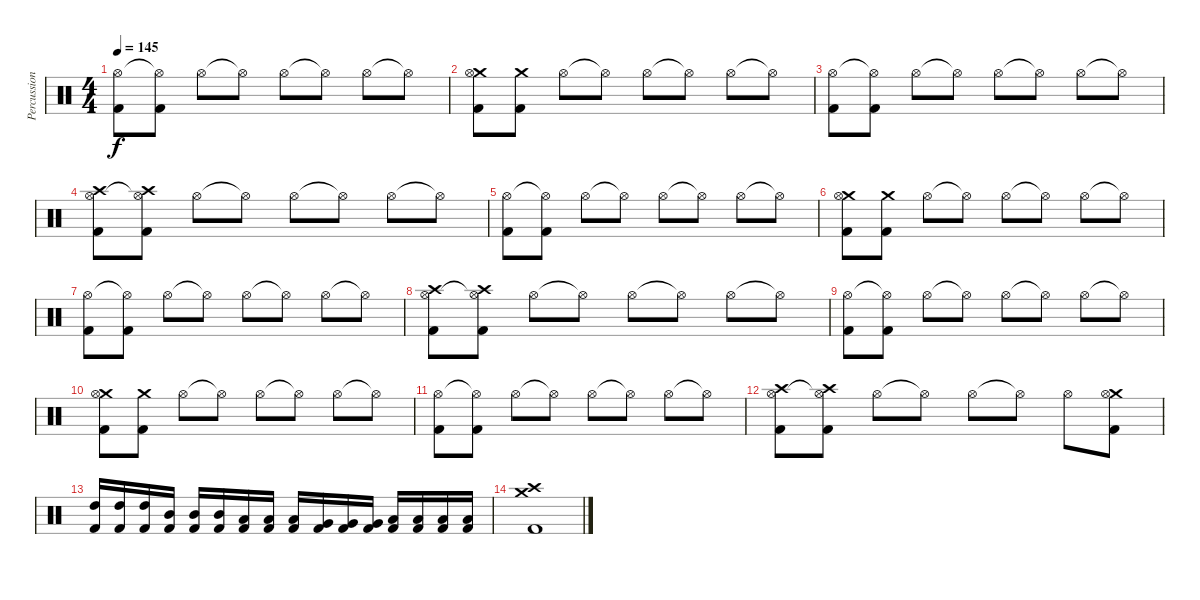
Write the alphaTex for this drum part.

\track ("Percussioni" "Percussion") {instrument percussion}
\staff {score}
\articulation defaults
\ts (4 4)
\tempo 145
\clef neutral
\ks c
("Hi-Hat (open)" "Kick (hit) 2").8{dy f} ("Hi-Hat (open)"{t} "Kick (hit) 2").8 "Hi-Hat (open)".8 "Hi-Hat (open)"{t}.8 "Hi-Hat (open)".8 "Hi-Hat (open)"{t}.8 "Hi-Hat (open)".8 "Hi-Hat (open)"{t}.8 |
("Crash medium (hit)" "Hi-Hat (open)" "Kick (hit) 2").8 ("Crash medium (hit)" "Kick (hit) 2").8 "Hi-Hat (open)".8 "Hi-Hat (open)"{t}.8 "Hi-Hat (open)".8 "Hi-Hat (open)"{t}.8 "Hi-Hat (open)".8 "Hi-Hat (open)"{t}.8 |
("Hi-Hat (open)" "Kick (hit) 2").8 ("Hi-Hat (open)"{t} "Kick (hit) 2").8 "Hi-Hat (open)".8 "Hi-Hat (open)"{t}.8 "Hi-Hat (open)".8 "Hi-Hat (open)"{t}.8 "Hi-Hat (open)".8 "Hi-Hat (open)"{t}.8 |
("Crash high (hit)" "Hi-Hat (open)" "Kick (hit) 2").8 ("Crash high (hit)" "Hi-Hat (open)"{t} "Kick (hit) 2").8 "Hi-Hat (open)".8 "Hi-Hat (open)"{t}.8 "Hi-Hat (open)".8 "Hi-Hat (open)"{t}.8 "Hi-Hat (open)".8 "Hi-Hat (open)"{t}.8 |
("Hi-Hat (open)" "Kick (hit) 2").8 ("Hi-Hat (open)"{t} "Kick (hit) 2").8 "Hi-Hat (open)".8 "Hi-Hat (open)"{t}.8 "Hi-Hat (open)".8 "Hi-Hat (open)"{t}.8 "Hi-Hat (open)".8 "Hi-Hat (open)"{t}.8 |
("Crash medium (hit)" "Hi-Hat (open)" "Kick (hit) 2").8 ("Crash medium (hit)" "Kick (hit) 2").8 "Hi-Hat (open)".8 "Hi-Hat (open)"{t}.8 "Hi-Hat (open)".8 "Hi-Hat (open)"{t}.8 "Hi-Hat (open)".8 "Hi-Hat (open)"{t}.8 |
("Hi-Hat (open)" "Kick (hit) 2").8 ("Hi-Hat (open)"{t} "Kick (hit) 2").8 "Hi-Hat (open)".8 "Hi-Hat (open)"{t}.8 "Hi-Hat (open)".8 "Hi-Hat (open)"{t}.8 "Hi-Hat (open)".8 "Hi-Hat (open)"{t}.8 |
("Crash high (hit)" "Hi-Hat (open)" "Kick (hit) 2").8 ("Crash high (hit)" "Hi-Hat (open)"{t} "Kick (hit) 2").8 "Hi-Hat (open)".8 "Hi-Hat (open)"{t}.8 "Hi-Hat (open)".8 "Hi-Hat (open)"{t}.8 "Hi-Hat (open)".8 "Hi-Hat (open)"{t}.8 |
("Hi-Hat (open)" "Kick (hit) 2").8 ("Hi-Hat (open)"{t} "Kick (hit) 2").8 "Hi-Hat (open)".8 "Hi-Hat (open)"{t}.8 "Hi-Hat (open)".8 "Hi-Hat (open)"{t}.8 "Hi-Hat (open)".8 "Hi-Hat (open)"{t}.8 |
("Crash medium (hit)" "Hi-Hat (open)" "Kick (hit) 2").8 ("Crash medium (hit)" "Kick (hit) 2").8 "Hi-Hat (open)".8 "Hi-Hat (open)"{t}.8 "Hi-Hat (open)".8 "Hi-Hat (open)"{t}.8 "Hi-Hat (open)".8 "Hi-Hat (open)"{t}.8 |
("Hi-Hat (open)" "Kick (hit) 2").8 ("Hi-Hat (open)"{t} "Kick (hit) 2").8 "Hi-Hat (open)".8 "Hi-Hat (open)"{t}.8 "Hi-Hat (open)".8 "Hi-Hat (open)"{t}.8 "Hi-Hat (open)".8 "Hi-Hat (open)"{t}.8 |
("Crash high (hit)" "Hi-Hat (open)" "Kick (hit) 2").8 ("Crash high (hit)" "Hi-Hat (open)"{t} "Kick (hit) 2").8 "Hi-Hat (open)".8 "Hi-Hat (open)"{t}.8 "Hi-Hat (open)".8 "Hi-Hat (open)"{t}.8 "Hi-Hat (open)".8 ("Crash medium (hit)" "Hi-Hat (open)" "Kick (hit) 2").8 |
("High Tom (hit)" "Kick (hit) 2").16 ("High Tom (hit)" "Kick (hit) 2").16 ("High Tom (hit)" "Kick (hit) 2").16 ("Mid Tom (hit)" "Kick (hit) 2").16 ("Mid Tom (hit)" "Kick (hit) 2").16 ("Mid Tom (hit)" "Kick (hit) 2").16 ("Low Tom (hit)" "Kick (hit) 2").16 ("Low Tom (hit)" "Kick (hit) 2").16 ("Low Tom (hit)" "Kick (hit) 2").16 ("Very Low Tom (hit)" "Kick (hit) 2").16 ("Very Low Tom (hit)" "Kick (hit) 2").16 ("Very Low Tom (hit)" "Kick (hit) 2").16 ("Low Floor Tom (hit)" "Kick (hit) 2").16 ("Low Floor Tom (hit)" "Kick (hit) 2").16 ("Low Floor Tom (hit)" "Kick (hit) 2").16 ("Low Floor Tom (hit)" "Kick (hit) 2").16 |
("Crash high (hit)" "Crash medium (hit)" "Kick (hit) 2").1
